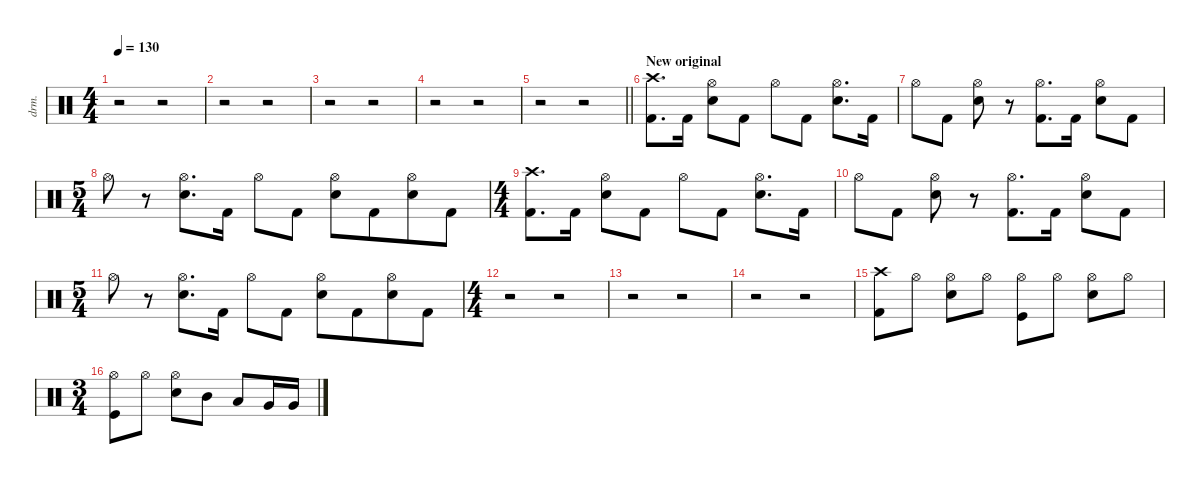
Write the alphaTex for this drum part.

\defaultSystemsLayout 4
\hideDynamics
\bracketExtendMode nobrackets
\track ("Manouche" "drm.") {solo instrument percussion}
\staff {score}
\articulation defaults
\ts (4 4)
\tempo 130
\clef neutral
\ks c
r.2{dy ff beam Down} r.2{beam Down} |
r.2{beam Down} r.2{beam Down} |
r.2{beam Down} r.2{beam Down} |
r.2{beam Down} r.2{beam Down} |
\barLineRight lightlight
r.2{beam Down} r.2{beam Down} |
\section ("" "New original")
("Crash high (hit)" "Kick (hit) 2").8{d dy f beam Down} "Kick (hit) 2".16{beam Down} ("Hi-Hat (open)" "Snare (hit) 2").8{beam Down} "Kick (hit) 2".8{beam Down} "Hi-Hat (open)".8{beam Down} "Kick (hit) 2".8{beam Down} ("Hi-Hat (open)" "Snare (hit) 2").8{d beam Down} "Kick (hit) 2".16{beam Down} |
"Hi-Hat (open)".8{beam Down} "Kick (hit) 2".8{beam Down} ("Hi-Hat (open)" "Snare (hit) 2").8{beam Down} r.8{beam Down} ("Hi-Hat (open)" "Kick (hit) 2").8{d beam Down} "Kick (hit) 2".16{beam Down} ("Hi-Hat (open)" "Snare (hit) 2").8{beam Down} "Kick (hit) 2".8{beam Down} |
\ts (5 4)
\beaming (8 2 2 2 4)
"Hi-Hat (open)".8{beam Down} r.8{beam Down} ("Hi-Hat (open)" "Snare (hit) 2").8{d beam Down} "Kick (hit) 2".16{beam Down} "Hi-Hat (open)".8{beam Down} "Kick (hit) 2".8{beam Down} ("Hi-Hat (open)" "Snare (hit) 2").8{beam Down} "Kick (hit) 2".8{beam Down} ("Hi-Hat (open)" "Snare (hit) 2").8{beam Down} "Kick (hit) 2".8{beam Down} |
\ts (4 4)
\beaming (8 2 2 2 2)
("Crash high (hit)" "Kick (hit) 2").8{d beam Down} "Kick (hit) 2".16{beam Down} ("Hi-Hat (open)" "Snare (hit) 2").8{beam Down} "Kick (hit) 2".8{beam Down} "Hi-Hat (open)".8{beam Down} "Kick (hit) 2".8{beam Down} ("Hi-Hat (open)" "Snare (hit) 2").8{d beam Down} "Kick (hit) 2".16{beam Down} |
"Hi-Hat (open)".8{beam Down} "Kick (hit) 2".8{beam Down} ("Hi-Hat (open)" "Snare (hit) 2").8{beam Down} r.8{beam Down} ("Hi-Hat (open)" "Kick (hit) 2").8{d beam Down} "Kick (hit) 2".16{beam Down} ("Hi-Hat (open)" "Snare (hit) 2").8{beam Down} "Kick (hit) 2".8{beam Down} |
\ts (5 4)
\beaming (8 2 2 2 4)
"Hi-Hat (open)".8{beam Down} r.8{beam Down} ("Hi-Hat (open)" "Snare (hit) 2").8{d beam Down} "Kick (hit) 2".16{beam Down} "Hi-Hat (open)".8{beam Down} "Kick (hit) 2".8{beam Down} ("Hi-Hat (open)" "Snare (hit) 2").8{beam Down} "Kick (hit) 2".8{beam Down} ("Hi-Hat (open)" "Snare (hit) 2").8{beam Down} "Kick (hit) 2".8{beam Down} |
\ts (4 4)
\beaming (8 2 2 2 2)
r.2{beam Down} r.2{beam Down} |
r.2{beam Down} r.2{beam Down} |
r.2{beam Down} r.2{beam Down} |
("Crash high (hit)" "Kick (hit) 2").8{dy fff beam Down} "Hi-Hat (open)".8{dy mp beam Down} ("Hi-Hat (open)" "Snare (hit) 2").8{dy f beam Down} "Hi-Hat (open)".8{dy mp beam Down} ("Hi-Hat (open)" "Kick (hit)").8{dy f beam Down} "Hi-Hat (open)".8{dy mp beam Down} ("Hi-Hat (open)" "Snare (hit) 2").8{dy f beam Down} "Hi-Hat (open)".8{dy mp beam Down} |
\ts (3 4)
\beaming (8 2 2 2)
("Hi-Hat (open)" "Kick (hit)").8{dy f beam Down} "Hi-Hat (open)".8{dy mp beam Down} ("Hi-Hat (open)" "Snare (hit) 2").8{dy f beam Down} "Mid Tom (hit)".8{beam Down} "Low Tom (hit)".8{beam Up} "Very Low Tom (hit)".16{beam Up} "Very Low Tom (hit)".16{beam Up}
